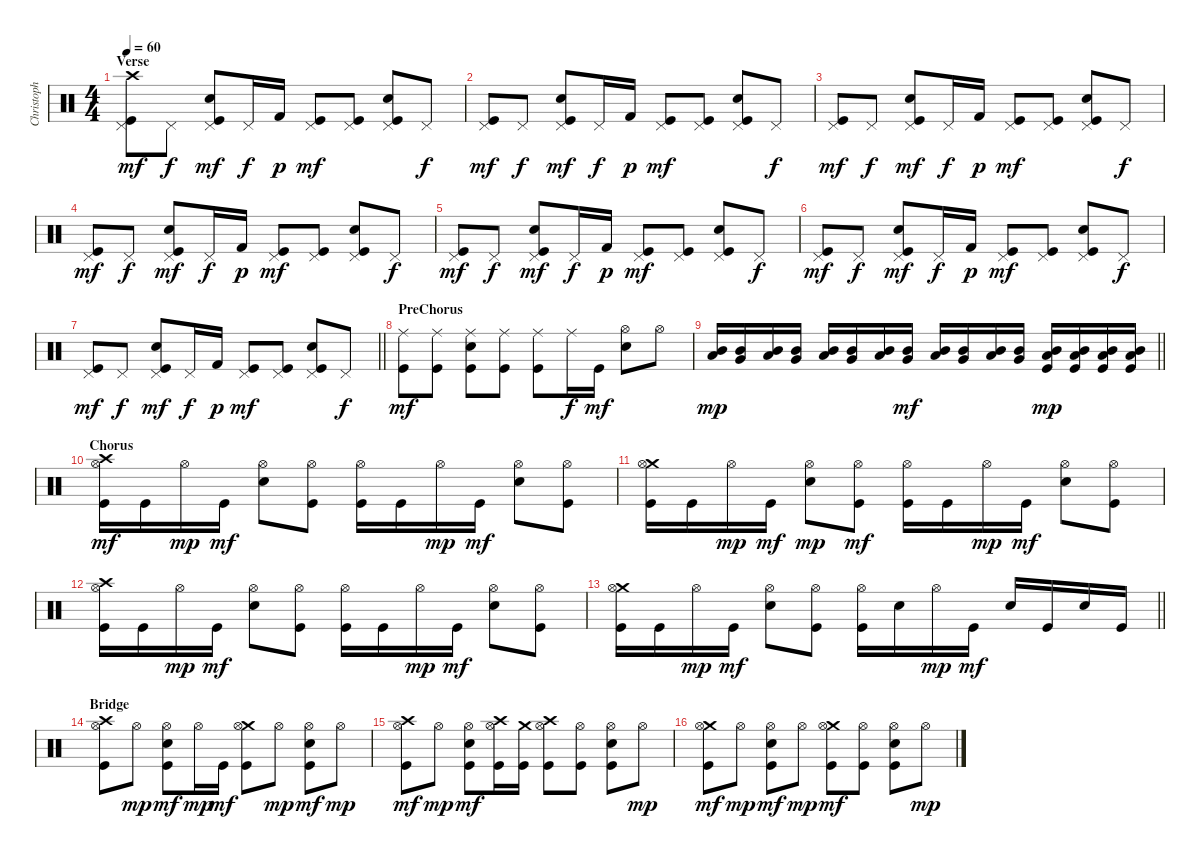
\track ("Christoph Schneider" "Christoph ") {instrument percussion}
\staff {score}
\articulation defaults
\ts (4 4)
\section ("" "Verse ")
\tempo 60
\clef neutral
\ks c
("Crash high (hit)" "Pedal Hi-Hat (hit)" "Kick (hit)").8{dy mf} "Pedal Hi-Hat (hit)".8{dy f} ("Pedal Hi-Hat (hit)" "Snare (hit) 2" "Kick (hit)").8{dy mf} "Pedal Hi-Hat (hit)".16{dy f} "Kick (hit) 2".16{dy p} ("Pedal Hi-Hat (hit)" "Kick (hit)").8{dy mf} ("Pedal Hi-Hat (hit)" "Kick (hit)").8 ("Pedal Hi-Hat (hit)" "Snare (hit) 2" "Kick (hit)").8 "Pedal Hi-Hat (hit)".8{dy f} |
("Pedal Hi-Hat (hit)" "Kick (hit)").8{dy mf} "Pedal Hi-Hat (hit)".8{dy f} ("Pedal Hi-Hat (hit)" "Snare (hit) 2" "Kick (hit)").8{dy mf} "Pedal Hi-Hat (hit)".16{dy f} "Kick (hit) 2".16{dy p} ("Pedal Hi-Hat (hit)" "Kick (hit)").8{dy mf} ("Pedal Hi-Hat (hit)" "Kick (hit)").8 ("Pedal Hi-Hat (hit)" "Snare (hit) 2" "Kick (hit)").8 "Pedal Hi-Hat (hit)".8{dy f} |
("Pedal Hi-Hat (hit)" "Kick (hit)").8{dy mf} "Pedal Hi-Hat (hit)".8{dy f} ("Pedal Hi-Hat (hit)" "Snare (hit) 2" "Kick (hit)").8{dy mf} "Pedal Hi-Hat (hit)".16{dy f} "Kick (hit) 2".16{dy p} ("Pedal Hi-Hat (hit)" "Kick (hit)").8{dy mf} ("Pedal Hi-Hat (hit)" "Kick (hit)").8 ("Pedal Hi-Hat (hit)" "Snare (hit) 2" "Kick (hit)").8 "Pedal Hi-Hat (hit)".8{dy f} |
("Pedal Hi-Hat (hit)" "Kick (hit)").8{dy mf} "Pedal Hi-Hat (hit)".8{dy f} ("Pedal Hi-Hat (hit)" "Snare (hit) 2" "Kick (hit)").8{dy mf} "Pedal Hi-Hat (hit)".16{dy f} "Kick (hit) 2".16{dy p} ("Pedal Hi-Hat (hit)" "Kick (hit)").8{dy mf} ("Pedal Hi-Hat (hit)" "Kick (hit)").8 ("Pedal Hi-Hat (hit)" "Snare (hit) 2" "Kick (hit)").8 "Pedal Hi-Hat (hit)".8{dy f} |
("Pedal Hi-Hat (hit)" "Kick (hit)").8{dy mf} "Pedal Hi-Hat (hit)".8{dy f} ("Pedal Hi-Hat (hit)" "Snare (hit) 2" "Kick (hit)").8{dy mf} "Pedal Hi-Hat (hit)".16{dy f} "Kick (hit) 2".16{dy p} ("Pedal Hi-Hat (hit)" "Kick (hit)").8{dy mf} ("Pedal Hi-Hat (hit)" "Kick (hit)").8 ("Pedal Hi-Hat (hit)" "Snare (hit) 2" "Kick (hit)").8 "Pedal Hi-Hat (hit)".8{dy f} |
("Pedal Hi-Hat (hit)" "Kick (hit)").8{dy mf} "Pedal Hi-Hat (hit)".8{dy f} ("Pedal Hi-Hat (hit)" "Snare (hit) 2" "Kick (hit)").8{dy mf} "Pedal Hi-Hat (hit)".16{dy f} "Kick (hit) 2".16{dy p} ("Pedal Hi-Hat (hit)" "Kick (hit)").8{dy mf} ("Pedal Hi-Hat (hit)" "Kick (hit)").8 ("Pedal Hi-Hat (hit)" "Snare (hit) 2" "Kick (hit)").8 "Pedal Hi-Hat (hit)".8{dy f} |
\barLineRight lightlight
("Pedal Hi-Hat (hit)" "Kick (hit)").8{dy mf} "Pedal Hi-Hat (hit)".8{dy f} ("Pedal Hi-Hat (hit)" "Snare (hit) 2" "Kick (hit)").8{dy mf} "Pedal Hi-Hat (hit)".16{dy f} "Kick (hit) 2".16{dy p} ("Pedal Hi-Hat (hit)" "Kick (hit)").8{dy mf} ("Pedal Hi-Hat (hit)" "Kick (hit)").8 ("Pedal Hi-Hat (hit)" "Snare (hit) 2" "Kick (hit)").8 "Pedal Hi-Hat (hit)".8{dy f} |
\section ("" "PreChorus")
("Ride (middle)" "Kick (hit)").8{dy mf} ("Ride (middle)" "Kick (hit)").8 ("Ride (middle)" "Snare (hit) 2" "Kick (hit)").8 ("Ride (middle)" "Kick (hit)").8 ("Ride (middle)" "Kick (hit)").8 "Ride (middle)".16{dy f} "Kick (hit)".16{dy mf} ("Hi-Hat (open)" "Snare (hit) 2").8 "Hi-Hat (open)".8 |
\barLineRight lightlight
("Mid Tom (hit)" "Low Tom (hit)").16{dy mp} ("Mid Tom (hit)" "Very Low Tom (hit)").16 ("Mid Tom (hit)" "Low Tom (hit)").16 ("Mid Tom (hit)" "Very Low Tom (hit)").16 ("Mid Tom (hit)" "Low Tom (hit)").16 ("Mid Tom (hit)" "Very Low Tom (hit)").16 ("Mid Tom (hit)" "Low Tom (hit)").16 ("Mid Tom (hit)" "Very Low Tom (hit)").16{dy mf} ("Mid Tom (hit)" "Low Tom (hit)").16 ("Mid Tom (hit)" "Very Low Tom (hit)").16 ("Mid Tom (hit)" "Low Tom (hit)").16 ("Mid Tom (hit)" "Very Low Tom (hit)").16 ("Mid Tom (hit)" "Low Tom (hit)" "Kick (hit)").16{dy mp} ("Mid Tom (hit)" "Low Tom (hit)" "Kick (hit)").16 ("Mid Tom (hit)" "Low Tom (hit)" "Kick (hit)").16{bu 30} ("Mid Tom (hit)" "Low Tom (hit)" "Kick (hit)").16{bd 30} |
\section ("" "Chorus")
("Crash high (hit)" "Hi-Hat (open)" "Kick (hit)").16{dy mf} "Kick (hit)".16 "Hi-Hat (open)".16{dy mp} "Kick (hit)".16{dy mf} ("Hi-Hat (open)" "Snare (hit) 2").8 ("Hi-Hat (open)" "Kick (hit)").8 ("Hi-Hat (open)" "Kick (hit)").16 "Kick (hit)".16 "Hi-Hat (open)".16{dy mp} "Kick (hit)".16{dy mf} ("Hi-Hat (open)" "Snare (hit) 2").8 ("Hi-Hat (open)" "Kick (hit)").8 |
("Crash medium (hit)" "Hi-Hat (open)" "Kick (hit)").16 "Kick (hit)".16 "Hi-Hat (open)".16{dy mp} "Kick (hit)".16{dy mf} ("Hi-Hat (open)" "Snare (hit) 2").8{dy mp} ("Hi-Hat (open)" "Kick (hit)").8{dy mf} ("Hi-Hat (open)" "Kick (hit)").16 "Kick (hit)".16 "Hi-Hat (open)".16{dy mp} "Kick (hit)".16{dy mf} ("Hi-Hat (open)" "Snare (hit) 2").8 ("Hi-Hat (open)" "Kick (hit)").8 |
("Crash high (hit)" "Hi-Hat (open)" "Kick (hit)").16 "Kick (hit)".16 "Hi-Hat (open)".16{dy mp} "Kick (hit)".16{dy mf} ("Hi-Hat (open)" "Snare (hit) 2").8 ("Hi-Hat (open)" "Kick (hit)").8 ("Hi-Hat (open)" "Kick (hit)").16 "Kick (hit)".16 "Hi-Hat (open)".16{dy mp} "Kick (hit)".16{dy mf} ("Hi-Hat (open)" "Snare (hit) 2").8 ("Hi-Hat (open)" "Kick (hit)").8 |
\barLineRight lightlight
("Crash medium (hit)" "Hi-Hat (open)" "Kick (hit)").16 "Kick (hit)".16 "Hi-Hat (open)".16{dy mp} "Kick (hit)".16{dy mf} ("Hi-Hat (open)" "Snare (hit) 2").8 ("Hi-Hat (open)" "Kick (hit)").8 ("Hi-Hat (open)" "Kick (hit)").16 "Snare (hit) 2".16 "Hi-Hat (open)".16{dy mp} "Kick (hit)".16{dy mf} "Snare (hit) 2".16 "Kick (hit)".16 "Snare (hit) 2".16 "Kick (hit)".16 |
\section ("" "Bridge")
("Crash high (hit)" "Hi-Hat (open)" "Kick (hit)").8 "Hi-Hat (open)".8{dy mp} ("Hi-Hat (open)" "Snare (hit) 2" "Kick (hit)").8{dy mf} "Hi-Hat (open)".16{dy mp} "Kick (hit)".16{dy mf} ("Crash medium (hit)" "Hi-Hat (open)" "Kick (hit)").8 "Hi-Hat (open)".8{dy mp} ("Hi-Hat (open)" "Snare (hit) 2" "Kick (hit)").8{dy mf} "Hi-Hat (open)".8{dy mp} |
("Crash high (hit)" "Hi-Hat (open)" "Kick (hit)").8{dy mf} "Hi-Hat (open)".8{dy mp} ("Hi-Hat (open)" "Snare (hit) 2" "Kick (hit)").8{dy mf} ("Crash high (hit)" "Hi-Hat (open)" "Kick (hit)").16 ("Crash medium (hit)" "Kick (hit)").16 ("Crash high (hit)" "Hi-Hat (open)" "Kick (hit)").8 ("Hi-Hat (open)" "Kick (hit)").8 ("Hi-Hat (open)" "Snare (hit) 2" "Kick (hit)").8 "Hi-Hat (open)".8{dy mp} |
("Crash medium (hit)" "Hi-Hat (open)" "Kick (hit)").8{dy mf} "Hi-Hat (open)".8{dy mp} ("Hi-Hat (open)" "Snare (hit) 2" "Kick (hit)").8{dy mf} "Hi-Hat (open)".8{dy mp} ("Crash medium (hit)" "Hi-Hat (open)" "Kick (hit)").8{dy mf} ("Hi-Hat (open)" "Kick (hit)").8 ("Hi-Hat (open)" "Snare (hit) 2" "Kick (hit)").8 "Hi-Hat (open)".8{dy mp}
